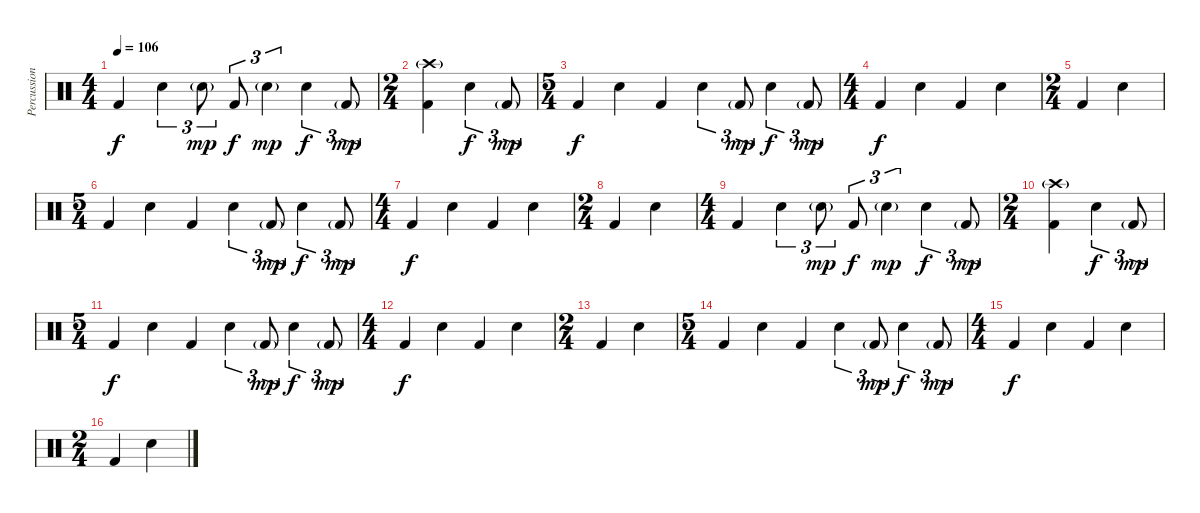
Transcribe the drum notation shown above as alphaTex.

\track ("Percussion" "Percussion") {instrument percussion}
\staff {score}
\articulation defaults
\ts (4 4)
\tempo 106
\clef neutral
\ks c "Kick (hit) 2".4{dy f} "Snare (hit) 2".4{tu (3 2)} "Snare (hit) 2"{g}.8{tu (3 2) dy mp} "Kick (hit) 2".8{tu (3 2) dy f} "Snare (hit) 2"{g}.4{tu (3 2) dy mp} "Snare (hit) 2".4{tu (3 2) dy f} "Kick (hit) 2"{g}.8{tu (3 2) dy mp}
|
\ts (2 4)
("Crash high (hit)"{g} "Kick (hit) 2").4 "Snare (hit) 2".4{tu (3 2) dy f} "Kick (hit) 2"{g}.8{tu (3 2) dy mp} |
\ts (5 4)
"Kick (hit) 2".4{dy f} "Snare (hit) 2".4 "Kick (hit) 2".4 "Snare (hit) 2".4{tu (3 2)} "Kick (hit) 2"{g}.8{tu (3 2) dy mp} "Snare (hit) 2".4{tu (3 2) dy f} "Kick (hit) 2"{g}.8{tu (3 2) dy mp} |
\ts (4 4)
"Kick (hit) 2".4{dy f} "Snare (hit) 2".4 "Kick (hit) 2".4 "Snare (hit) 2".4 |
\ts (2 4)
"Kick (hit) 2".4 "Snare (hit) 2".4 |
\ts (5 4)
"Kick (hit) 2".4 "Snare (hit) 2".4 "Kick (hit) 2".4 "Snare (hit) 2".4{tu (3 2)} "Kick (hit) 2"{g}.8{tu (3 2) dy mp} "Snare (hit) 2".4{tu (3 2) dy f} "Kick (hit) 2"{g}.8{tu (3 2) dy mp} |
\ts (4 4)
"Kick (hit) 2".4{dy f} "Snare (hit) 2".4 "Kick (hit) 2".4 "Snare (hit) 2".4 |
\ts (2 4)
"Kick (hit) 2".4 "Snare (hit) 2".4 |
\ts (4 4)
"Kick (hit) 2".4 "Snare (hit) 2".4{tu (3 2)} "Snare (hit) 2"{g}.8{tu (3 2) dy mp} "Kick (hit) 2".8{tu (3 2) dy f} "Snare (hit) 2"{g}.4{tu (3 2) dy mp} "Snare (hit) 2".4{tu (3 2) dy f} "Kick (hit) 2"{g}.8{tu (3 2) dy mp} |
\ts (2 4)
("Crash high (hit)"{g} "Kick (hit) 2").4 "Snare (hit) 2".4{tu (3 2) dy f} "Kick (hit) 2"{g}.8{tu (3 2) dy mp} |
\ts (5 4)
"Kick (hit) 2".4{dy f} "Snare (hit) 2".4 "Kick (hit) 2".4 "Snare (hit) 2".4{tu (3 2)} "Kick (hit) 2"{g}.8{tu (3 2) dy mp} "Snare (hit) 2".4{tu (3 2) dy f} "Kick (hit) 2"{g}.8{tu (3 2) dy mp} |
\ts (4 4)
"Kick (hit) 2".4{dy f} "Snare (hit) 2".4 "Kick (hit) 2".4 "Snare (hit) 2".4 |
\ts (2 4)
"Kick (hit) 2".4 "Snare (hit) 2".4 |
\ts (5 4)
"Kick (hit) 2".4 "Snare (hit) 2".4 "Kick (hit) 2".4 "Snare (hit) 2".4{tu (3 2)} "Kick (hit) 2"{g}.8{tu (3 2) dy mp} "Snare (hit) 2".4{tu (3 2) dy f} "Kick (hit) 2"{g}.8{tu (3 2) dy mp} |
\ts (4 4)
"Kick (hit) 2".4{dy f} "Snare (hit) 2".4 "Kick (hit) 2".4 "Snare (hit) 2".4 |
\ts (2 4)
"Kick (hit) 2".4 "Snare (hit) 2".4
